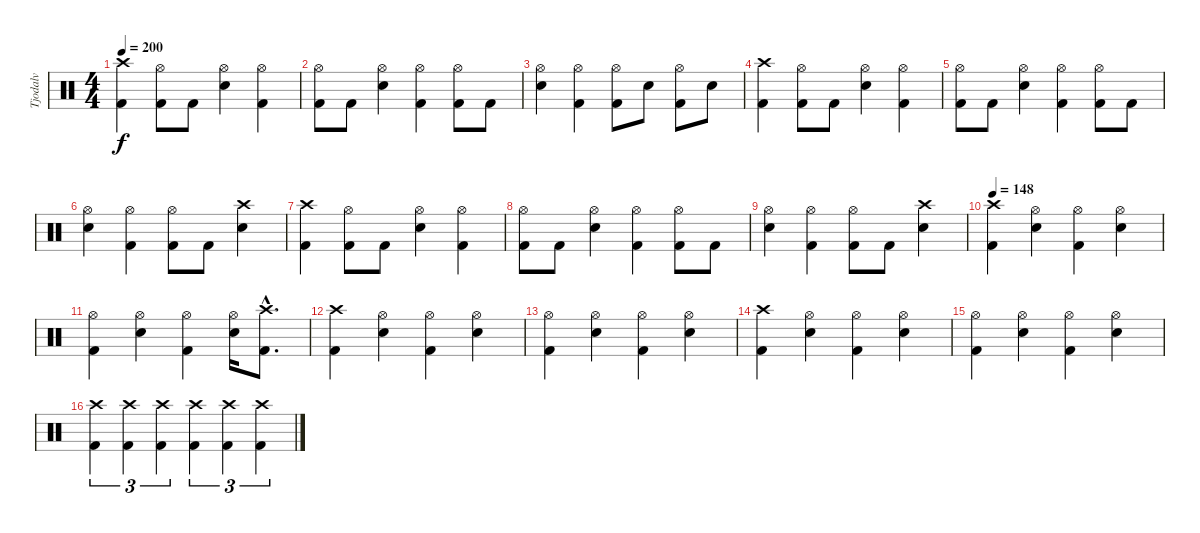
\track ("Tjodalv" "Tjodalv") {instrument percussion}
\staff {score}
\articulation defaults
\ts (4 4)
\tempo 200
\clef neutral
\ks c
("Kick (hit) 2" "Crash high (hit)").4{dy f} ("Kick (hit) 2" "Hi-Hat (open)").8 "Kick (hit) 2".8 ("Snare (hit) 2" "Hi-Hat (open)").4 ("Kick (hit) 2" "Hi-Hat (open)").4 |
("Kick (hit) 2" "Hi-Hat (open)").8 "Kick (hit) 2".8 ("Snare (hit) 2" "Hi-Hat (open)").4 ("Kick (hit) 2" "Hi-Hat (open)").4 ("Kick (hit) 2" "Hi-Hat (open)").8 "Kick (hit) 2".8 |
("Snare (hit) 2" "Hi-Hat (open)").4 ("Kick (hit) 2" "Hi-Hat (open)").4 ("Kick (hit) 2" "Hi-Hat (open)").8 "Snare (hit) 2".8 ("Kick (hit) 2" "Hi-Hat (open)").8 "Snare (hit) 2".8 |
("Kick (hit) 2" "Crash high (hit)").4 ("Kick (hit) 2" "Hi-Hat (open)").8 "Kick (hit) 2".8 ("Snare (hit) 2" "Hi-Hat (open)").4 ("Kick (hit) 2" "Hi-Hat (open)").4 |
("Kick (hit) 2" "Hi-Hat (open)").8 "Kick (hit) 2".8 ("Snare (hit) 2" "Hi-Hat (open)").4 ("Kick (hit) 2" "Hi-Hat (open)").4 ("Kick (hit) 2" "Hi-Hat (open)").8 "Kick (hit) 2".8 |
("Snare (hit) 2" "Hi-Hat (open)").4 ("Kick (hit) 2" "Hi-Hat (open)").4 ("Kick (hit) 2" "Hi-Hat (open)").8 "Kick (hit) 2".8 ("Snare (hit) 2" "Crash high (hit)").4 |
("Kick (hit) 2" "Crash high (hit)").4 ("Kick (hit) 2" "Hi-Hat (open)").8 "Kick (hit) 2".8 ("Snare (hit) 2" "Hi-Hat (open)").4 ("Kick (hit) 2" "Hi-Hat (open)").4 |
("Kick (hit) 2" "Hi-Hat (open)").8 "Kick (hit) 2".8 ("Snare (hit) 2" "Hi-Hat (open)").4 ("Kick (hit) 2" "Hi-Hat (open)").4 ("Kick (hit) 2" "Hi-Hat (open)").8 "Kick (hit) 2".8 |
("Snare (hit) 2" "Hi-Hat (open)").4 ("Kick (hit) 2" "Hi-Hat (open)").4 ("Kick (hit) 2" "Hi-Hat (open)").8 "Kick (hit) 2".8 ("Snare (hit) 2" "Crash high (hit)").4 |
\tempo 148
("Kick (hit) 2" "Crash high (hit)").4 ("Snare (hit) 2" "Hi-Hat (open)").4 ("Kick (hit) 2" "Hi-Hat (open)").4 ("Snare (hit) 2" "Hi-Hat (open)").4 |
("Kick (hit) 2" "Hi-Hat (open)").4 ("Snare (hit) 2" "Hi-Hat (open)").4 ("Kick (hit) 2" "Hi-Hat (open)").4 ("Snare (hit) 2" "Hi-Hat (open)").16 ("Kick (hit) 2"{hac} "Crash high (hit)"{hac}).8{d} |
("Kick (hit) 2" "Crash high (hit)").4 ("Snare (hit) 2" "Hi-Hat (open)").4 ("Kick (hit) 2" "Hi-Hat (open)").4 ("Snare (hit) 2" "Hi-Hat (open)").4 |
("Kick (hit) 2" "Hi-Hat (open)").4 ("Snare (hit) 2" "Hi-Hat (open)").4 ("Kick (hit) 2" "Hi-Hat (open)").4 ("Snare (hit) 2" "Hi-Hat (open)").4 |
("Kick (hit) 2" "Crash high (hit)").4 ("Snare (hit) 2" "Hi-Hat (open)").4 ("Kick (hit) 2" "Hi-Hat (open)").4 ("Snare (hit) 2" "Hi-Hat (open)").4 |
("Kick (hit) 2" "Hi-Hat (open)").4 ("Snare (hit) 2" "Hi-Hat (open)").4 ("Kick (hit) 2" "Hi-Hat (open)").4 ("Snare (hit) 2" "Hi-Hat (open)").4 |
("Kick (hit) 2" "Crash high (hit)").4{tu (3 2)} ("Kick (hit) 2" "Crash high (hit)").4{tu (3 2)} ("Kick (hit) 2" "Crash high (hit)").4{tu (3 2)} ("Kick (hit) 2" "Crash high (hit)").4{tu (3 2)} ("Kick (hit) 2" "Crash high (hit)").4{tu (3 2)} ("Kick (hit) 2" "Crash high (hit)").4{tu (3 2)}
